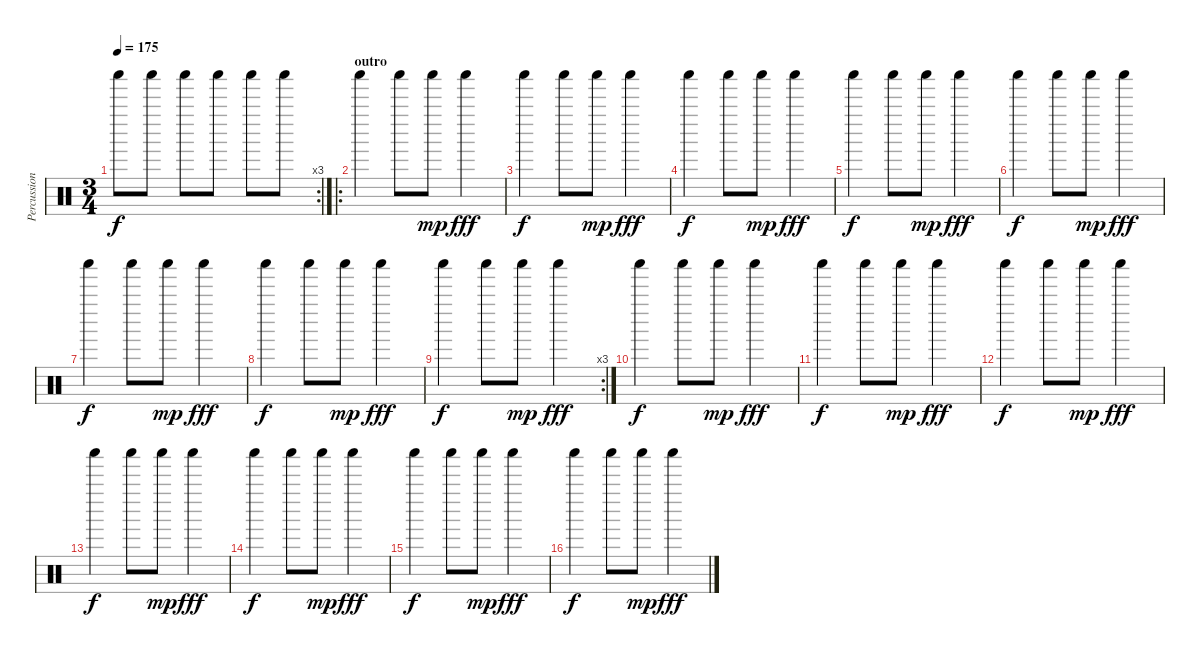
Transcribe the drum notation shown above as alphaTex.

\track ("Percussion" "Percussion") {instrument percussion}
\staff {score}
\articulation defaults
\rc 3
\ts (3 4)
\tempo 175
\clef neutral
\ks c "Shaker (hit)".8{dy f} "Shaker (hit)".8 "Shaker (hit)".8 "Shaker (hit)".8 "Shaker (hit)".8 "Shaker (hit)".8
|
\ro
\section ("" "outro")
"Shaker (hit)".4 "Shaker (hit)".8 "Shaker (hit)".8{dy mp} "Shaker (hit)".4{dy fff} |
"Shaker (hit)".4{dy f} "Shaker (hit)".8 "Shaker (hit)".8{dy mp} "Shaker (hit)".4{dy fff} |
"Shaker (hit)".4{dy f} "Shaker (hit)".8 "Shaker (hit)".8{dy mp} "Shaker (hit)".4{dy fff} |
"Shaker (hit)".4{dy f} "Shaker (hit)".8 "Shaker (hit)".8{dy mp} "Shaker (hit)".4{dy fff} |
"Shaker (hit)".4{dy f} "Shaker (hit)".8 "Shaker (hit)".8{dy mp} "Shaker (hit)".4{dy fff} |
"Shaker (hit)".4{dy f} "Shaker (hit)".8 "Shaker (hit)".8{dy mp} "Shaker (hit)".4{dy fff} |
"Shaker (hit)".4{dy f} "Shaker (hit)".8 "Shaker (hit)".8{dy mp} "Shaker (hit)".4{dy fff} |
\rc 3 "Shaker (hit)".4{dy f} "Shaker (hit)".8 "Shaker (hit)".8{dy mp} "Shaker (hit)".4{dy fff}
|
"Shaker (hit)".4{dy f} "Shaker (hit)".8 "Shaker (hit)".8{dy mp} "Shaker (hit)".4{dy fff} |
"Shaker (hit)".4{dy f} "Shaker (hit)".8 "Shaker (hit)".8{dy mp} "Shaker (hit)".4{dy fff} |
"Shaker (hit)".4{dy f} "Shaker (hit)".8 "Shaker (hit)".8{dy mp} "Shaker (hit)".4{dy fff} |
"Shaker (hit)".4{dy f} "Shaker (hit)".8 "Shaker (hit)".8{dy mp} "Shaker (hit)".4{dy fff} |
"Shaker (hit)".4{dy f} "Shaker (hit)".8 "Shaker (hit)".8{dy mp} "Shaker (hit)".4{dy fff} |
"Shaker (hit)".4{dy f} "Shaker (hit)".8 "Shaker (hit)".8{dy mp} "Shaker (hit)".4{dy fff} |
"Shaker (hit)".4{dy f} "Shaker (hit)".8 "Shaker (hit)".8{dy mp} "Shaker (hit)".4{dy fff}
